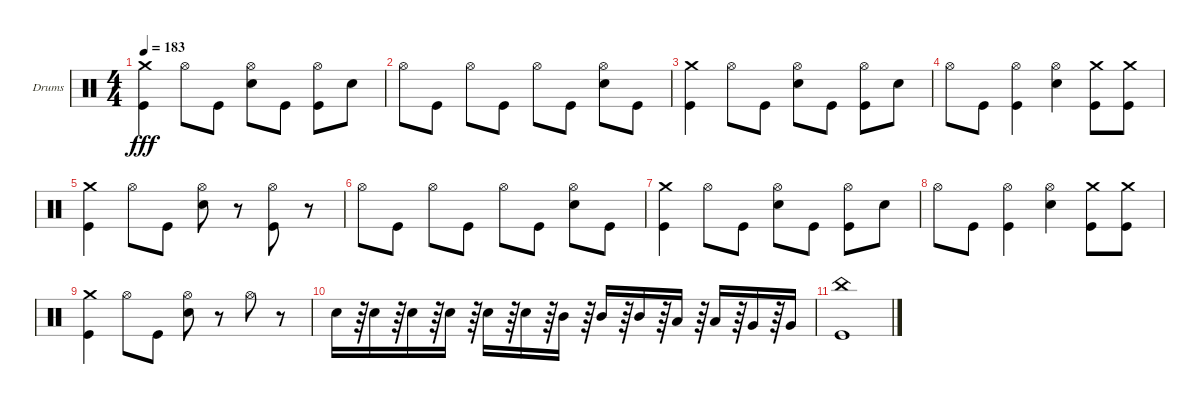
\bracketExtendMode groupsimilarinstruments
\firstSystemTrackNameOrientation horizontal
\otherSystemsTrackNameOrientation horizontal
\track ("Drumkit" "Drums") {instrument percussion}
\staff {score}
\articulation defaults
\ts (4 4)
\tempo 183
\clef neutral
\scale
0.333333
\ks c
("Kick (hit)" "Crash medium (hit)").4{dy fff} "Hi-Hat (open)".8 "Kick (hit)".8 ("Snare (hit) 2" "Hi-Hat (open)").8 "Kick (hit)".8 ("Kick (hit)" "Hi-Hat (open)").8 "Snare (hit) 2".8 |
\scale
0.333333 "Hi-Hat (open)".8 "Kick (hit)".8 "Hi-Hat (open)".8 "Kick (hit)".8 "Hi-Hat (open)".8 "Kick (hit)".8 ("Hi-Hat (open)" "Snare (hit) 2").8 "Kick (hit)".8 |
\scale
0.333333 ("Kick (hit)" "Crash medium (hit)").4 "Hi-Hat (open)".8 "Kick (hit)".8 ("Snare (hit) 2" "Hi-Hat (open)").8 "Kick (hit)".8 ("Kick (hit)" "Hi-Hat (open)").8 "Snare (hit) 2".8 |
\scale
0.333333 "Hi-Hat (open)".8 "Kick (hit)".8 ("Kick (hit)" "Hi-Hat (open)").4 ("Snare (hit) 2" "Hi-Hat (open)").4 ("Kick (hit)" "Crash medium (hit)").8 ("Kick (hit)" "Crash medium (hit)").8 |
\scale
0.333333 ("Kick (hit)" "Crash medium (hit)").4 "Hi-Hat (open)".8 "Kick (hit)".8 ("Snare (hit) 2" "Hi-Hat (open)").8 r.8 ("Hi-Hat (open)" "Kick (hit)").8 r.8 |
\scale
0.333333 "Hi-Hat (open)".8 "Kick (hit)".8 "Hi-Hat (open)".8 "Kick (hit)".8 "Hi-Hat (open)".8 "Kick (hit)".8 ("Hi-Hat (open)" "Snare (hit) 2").8 "Kick (hit)".8 |
\scale
0.333333 ("Kick (hit)" "Crash medium (hit)").4 "Hi-Hat (open)".8 "Kick (hit)".8 ("Snare (hit) 2" "Hi-Hat (open)").8 "Kick (hit)".8 ("Kick (hit)" "Hi-Hat (open)").8 "Snare (hit) 2".8 |
\scale
0.333333 "Hi-Hat (open)".8 "Kick (hit)".8 ("Kick (hit)" "Hi-Hat (open)").4 ("Snare (hit) 2" "Hi-Hat (open)").4 ("Kick (hit)" "Crash medium (hit)").8 ("Kick (hit)" "Crash medium (hit)").8 |
\scale
0.333333 ("Kick (hit)" "Crash medium (hit)").4 "Hi-Hat (open)".8 "Kick (hit)".8 ("Snare (hit) 2" "Hi-Hat (open)").8 r.8 "Hi-Hat (open)".8 r.8 |
\scale
0.333333 "Snare (hit) 2".16 r.64 "Snare (hit) 2".16 r.64 "Snare (hit) 2".16 r.64 "Snare (hit) 2".16 r.64 "Snare (hit) 2".16 r.64 "Snare (hit) 2".16 r.64 "Mid Tom (hit)".16 r.64 "Mid Tom (hit)".16 r.64 "Mid Tom (hit)".16 r.64 "Low Tom (hit)".16 r.64 "Low Tom (hit)".16 r.64 "Very Low Tom (hit)".16 r.64 "Very Low Tom (hit)".16 |
\scale
0.333333 ("Kick (hit)" "China (hit)").1
